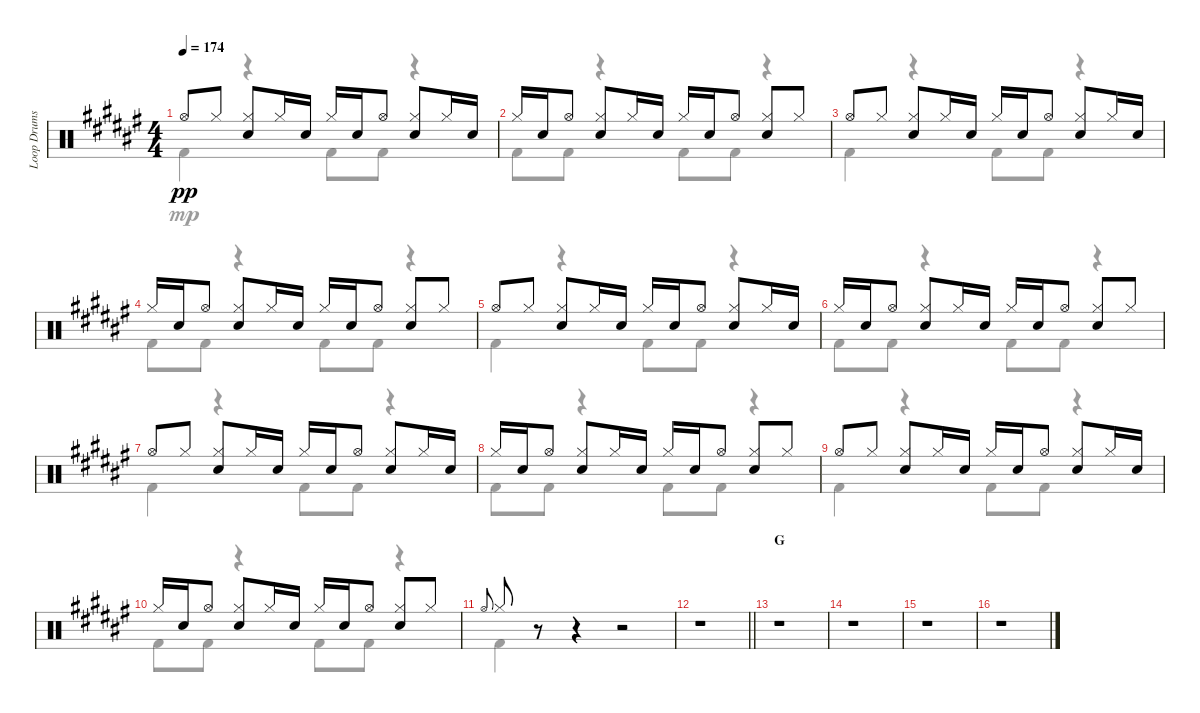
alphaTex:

\track ("Loop Drums" "Loop Drums") {instrument percussion}
\staff {score}
\articulation defaults
\voice
\ts (4 4)
\tempo 174
\clef neutral
\ks f# "Hi-Hat (open)".8{dy pp} "Hi-Hat (closed)".8
("Hi-Hat (closed)" "Electric Snare (hit)").8 "Hi-Hat (closed)".16 "Electric Snare (hit)".16 "Hi-Hat (closed)".16 "Electric Snare (hit)".16 "Hi-Hat (open)".8 ("Hi-Hat (closed)" "Electric Snare (hit)").8 "Hi-Hat (closed)".16 "Electric Snare (hit)".16 |
"Hi-Hat (closed)".16 "Electric Snare (hit)".16 "Hi-Hat (open)".8 ("Hi-Hat (closed)" "Electric Snare (hit)").8 "Hi-Hat (closed)".16 "Electric Snare (hit)".16 "Hi-Hat (closed)".16 "Electric Snare (hit)".16 "Hi-Hat (open)".8 ("Hi-Hat (closed)" "Electric Snare (hit)").8 "Hi-Hat (closed)".8 |
"Hi-Hat (open)".8 "Hi-Hat (closed)".8 ("Hi-Hat (closed)" "Electric Snare (hit)").8 "Hi-Hat (closed)".16 "Electric Snare (hit)".16 "Hi-Hat (closed)".16 "Electric Snare (hit)".16 "Hi-Hat (open)".8 ("Hi-Hat (closed)" "Electric Snare (hit)").8 "Hi-Hat (closed)".16 "Electric Snare (hit)".16 |
"Hi-Hat (closed)".16 "Electric Snare (hit)".16 "Hi-Hat (open)".8 ("Hi-Hat (closed)" "Electric Snare (hit)").8 "Hi-Hat (closed)".16 "Electric Snare (hit)".16 "Hi-Hat (closed)".16 "Electric Snare (hit)".16 "Hi-Hat (open)".8 ("Hi-Hat (closed)" "Electric Snare (hit)").8 "Hi-Hat (closed)".8 |
"Hi-Hat (open)".8 "Hi-Hat (closed)".8 ("Hi-Hat (closed)" "Electric Snare (hit)").8 "Hi-Hat (closed)".16 "Electric Snare (hit)".16 "Hi-Hat (closed)".16 "Electric Snare (hit)".16 "Hi-Hat (open)".8 ("Hi-Hat (closed)" "Electric Snare (hit)").8 "Hi-Hat (closed)".16 "Electric Snare (hit)".16 |
"Hi-Hat (closed)".16 "Electric Snare (hit)".16 "Hi-Hat (open)".8 ("Hi-Hat (closed)" "Electric Snare (hit)").8 "Hi-Hat (closed)".16 "Electric Snare (hit)".16 "Hi-Hat (closed)".16 "Electric Snare (hit)".16 "Hi-Hat (open)".8 ("Hi-Hat (closed)" "Electric Snare (hit)").8 "Hi-Hat (closed)".8 |
"Hi-Hat (open)".8 "Hi-Hat (closed)".8 ("Hi-Hat (closed)" "Electric Snare (hit)").8 "Hi-Hat (closed)".16 "Electric Snare (hit)".16 "Hi-Hat (closed)".16 "Electric Snare (hit)".16 "Hi-Hat (open)".8 ("Hi-Hat (closed)" "Electric Snare (hit)").8 "Hi-Hat (closed)".16 "Electric Snare (hit)".16 |
"Hi-Hat (closed)".16 "Electric Snare (hit)".16 "Hi-Hat (open)".8 ("Hi-Hat (closed)" "Electric Snare (hit)").8 "Hi-Hat (closed)".16 "Electric Snare (hit)".16 "Hi-Hat (closed)".16 "Electric Snare (hit)".16 "Hi-Hat (open)".8 ("Hi-Hat (closed)" "Electric Snare (hit)").8 "Hi-Hat (closed)".8 |
"Hi-Hat (open)".8 "Hi-Hat (closed)".8 ("Hi-Hat (closed)" "Electric Snare (hit)").8 "Hi-Hat (closed)".16 "Electric Snare (hit)".16 "Hi-Hat (closed)".16 "Electric Snare (hit)".16 "Hi-Hat (open)".8 ("Hi-Hat (closed)" "Electric Snare (hit)").8 "Hi-Hat (closed)".16 "Electric Snare (hit)".16 |
"Hi-Hat (closed)".16 "Electric Snare (hit)".16 "Hi-Hat (open)".8 ("Hi-Hat (closed)" "Electric Snare (hit)").8 "Hi-Hat (closed)".16 "Electric Snare (hit)".16 "Hi-Hat (closed)".16 "Electric Snare (hit)".16 "Hi-Hat (open)".8 ("Hi-Hat (closed)" "Electric Snare (hit)").8 "Hi-Hat (closed)".8 |
"Hi-Hat (open)".8{gr onbeat} "Hi-Hat (closed)".8 r.8 r.4 r.2 |
\barLineRight lightlight
r.1 |
\section ("" "G")
r.1 |
r.1 |
r.1 |
r.1
\voice
\clef neutral
\ottava regular
\simile none
\ks f# "Kick (hit) 2".4{dy mp}
r.4 "Kick (hit) 2".8 "Kick (hit) 2".8 r.4 |
"Kick (hit) 2".8 "Kick (hit) 2".8 r.4 "Kick (hit) 2".8 "Kick (hit) 2".8 r.4 |
"Kick (hit) 2".4 r.4 "Kick (hit) 2".8 "Kick (hit) 2".8 r.4 |
"Kick (hit) 2".8 "Kick (hit) 2".8 r.4 "Kick (hit) 2".8 "Kick (hit) 2".8 r.4 |
"Kick (hit) 2".4 r.4 "Kick (hit) 2".8 "Kick (hit) 2".8 r.4 |
"Kick (hit) 2".8 "Kick (hit) 2".8 r.4 "Kick (hit) 2".8 "Kick (hit) 2".8 r.4 |
"Kick (hit) 2".4 r.4 "Kick (hit) 2".8 "Kick (hit) 2".8 r.4 |
"Kick (hit) 2".8 "Kick (hit) 2".8 r.4 "Kick (hit) 2".8 "Kick (hit) 2".8 r.4 |
"Kick (hit) 2".4 r.4 "Kick (hit) 2".8 "Kick (hit) 2".8 r.4 |
"Kick (hit) 2".8 "Kick (hit) 2".8 r.4 "Kick (hit) 2".8 "Kick (hit) 2".8 r.4 |
"Kick (hit) 2".4 r.4 r.2 |
\barLineRight lightlight
r.1 |
r.1 |
r.1 |
r.1 |
r.1
